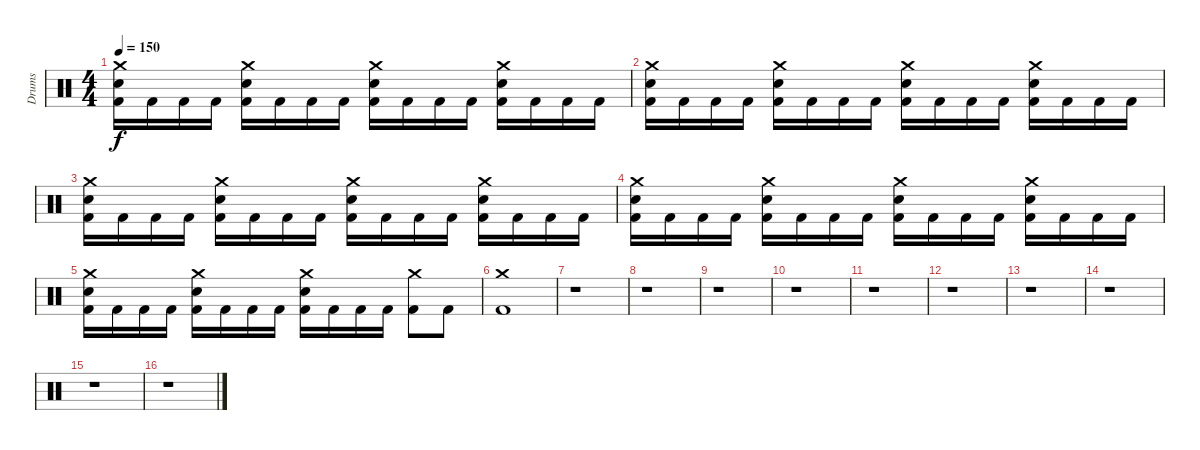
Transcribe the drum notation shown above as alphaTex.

\track ("Drums" "Drums") {instrument percussion}
\staff {score}
\articulation defaults
\ts (4 4)
\tempo 150
\clef neutral
\ks c
("Kick (hit) 2" "Electric Snare (hit)" "Crash medium (hit)").16{dy f} "Kick (hit) 2".16 "Kick (hit) 2".16 "Kick (hit) 2".16 ("Kick (hit) 2" "Electric Snare (hit)" "Crash medium (hit)").16 "Kick (hit) 2".16 "Kick (hit) 2".16 "Kick (hit) 2".16 ("Kick (hit) 2" "Electric Snare (hit)" "Crash medium (hit)").16 "Kick (hit) 2".16 "Kick (hit) 2".16 "Kick (hit) 2".16 ("Kick (hit) 2" "Electric Snare (hit)" "Crash medium (hit)").16 "Kick (hit) 2".16 "Kick (hit) 2".16 "Kick (hit) 2".16 |
("Kick (hit) 2" "Electric Snare (hit)" "Crash medium (hit)").16 "Kick (hit) 2".16 "Kick (hit) 2".16 "Kick (hit) 2".16 ("Kick (hit) 2" "Electric Snare (hit)" "Crash medium (hit)").16 "Kick (hit) 2".16 "Kick (hit) 2".16 "Kick (hit) 2".16 ("Kick (hit) 2" "Electric Snare (hit)" "Crash medium (hit)").16 "Kick (hit) 2".16 "Kick (hit) 2".16 "Kick (hit) 2".16 ("Kick (hit) 2" "Electric Snare (hit)" "Crash medium (hit)").16 "Kick (hit) 2".16 "Kick (hit) 2".16 "Kick (hit) 2".16 |
("Kick (hit) 2" "Electric Snare (hit)" "Crash medium (hit)").16 "Kick (hit) 2".16 "Kick (hit) 2".16 "Kick (hit) 2".16 ("Kick (hit) 2" "Electric Snare (hit)" "Crash medium (hit)").16 "Kick (hit) 2".16 "Kick (hit) 2".16 "Kick (hit) 2".16 ("Kick (hit) 2" "Electric Snare (hit)" "Crash medium (hit)").16 "Kick (hit) 2".16 "Kick (hit) 2".16 "Kick (hit) 2".16 ("Kick (hit) 2" "Electric Snare (hit)" "Crash medium (hit)").16 "Kick (hit) 2".16 "Kick (hit) 2".16 "Kick (hit) 2".16 |
("Kick (hit) 2" "Electric Snare (hit)" "Crash medium (hit)").16 "Kick (hit) 2".16 "Kick (hit) 2".16 "Kick (hit) 2".16 ("Kick (hit) 2" "Electric Snare (hit)" "Crash medium (hit)").16 "Kick (hit) 2".16 "Kick (hit) 2".16 "Kick (hit) 2".16 ("Kick (hit) 2" "Electric Snare (hit)" "Crash medium (hit)").16 "Kick (hit) 2".16 "Kick (hit) 2".16 "Kick (hit) 2".16 ("Kick (hit) 2" "Electric Snare (hit)" "Crash medium (hit)").16 "Kick (hit) 2".16 "Kick (hit) 2".16 "Kick (hit) 2".16 |
("Kick (hit) 2" "Electric Snare (hit)" "Crash medium (hit)").16 "Kick (hit) 2".16 "Kick (hit) 2".16 "Kick (hit) 2".16 ("Kick (hit) 2" "Electric Snare (hit)" "Crash medium (hit)").16 "Kick (hit) 2".16 "Kick (hit) 2".16 "Kick (hit) 2".16 ("Kick (hit) 2" "Electric Snare (hit)" "Crash medium (hit)").16 "Kick (hit) 2".16 "Kick (hit) 2".16 "Kick (hit) 2".16 ("Kick (hit) 2" "Crash medium (hit)").8 "Kick (hit) 2".8 |
("Kick (hit) 2" "Crash medium (hit)").1 |
r.1 |
r.1 |
r.1 |
r.1 |
r.1 |
r.1 |
r.1 |
r.1 |
r.1 |
r.1
